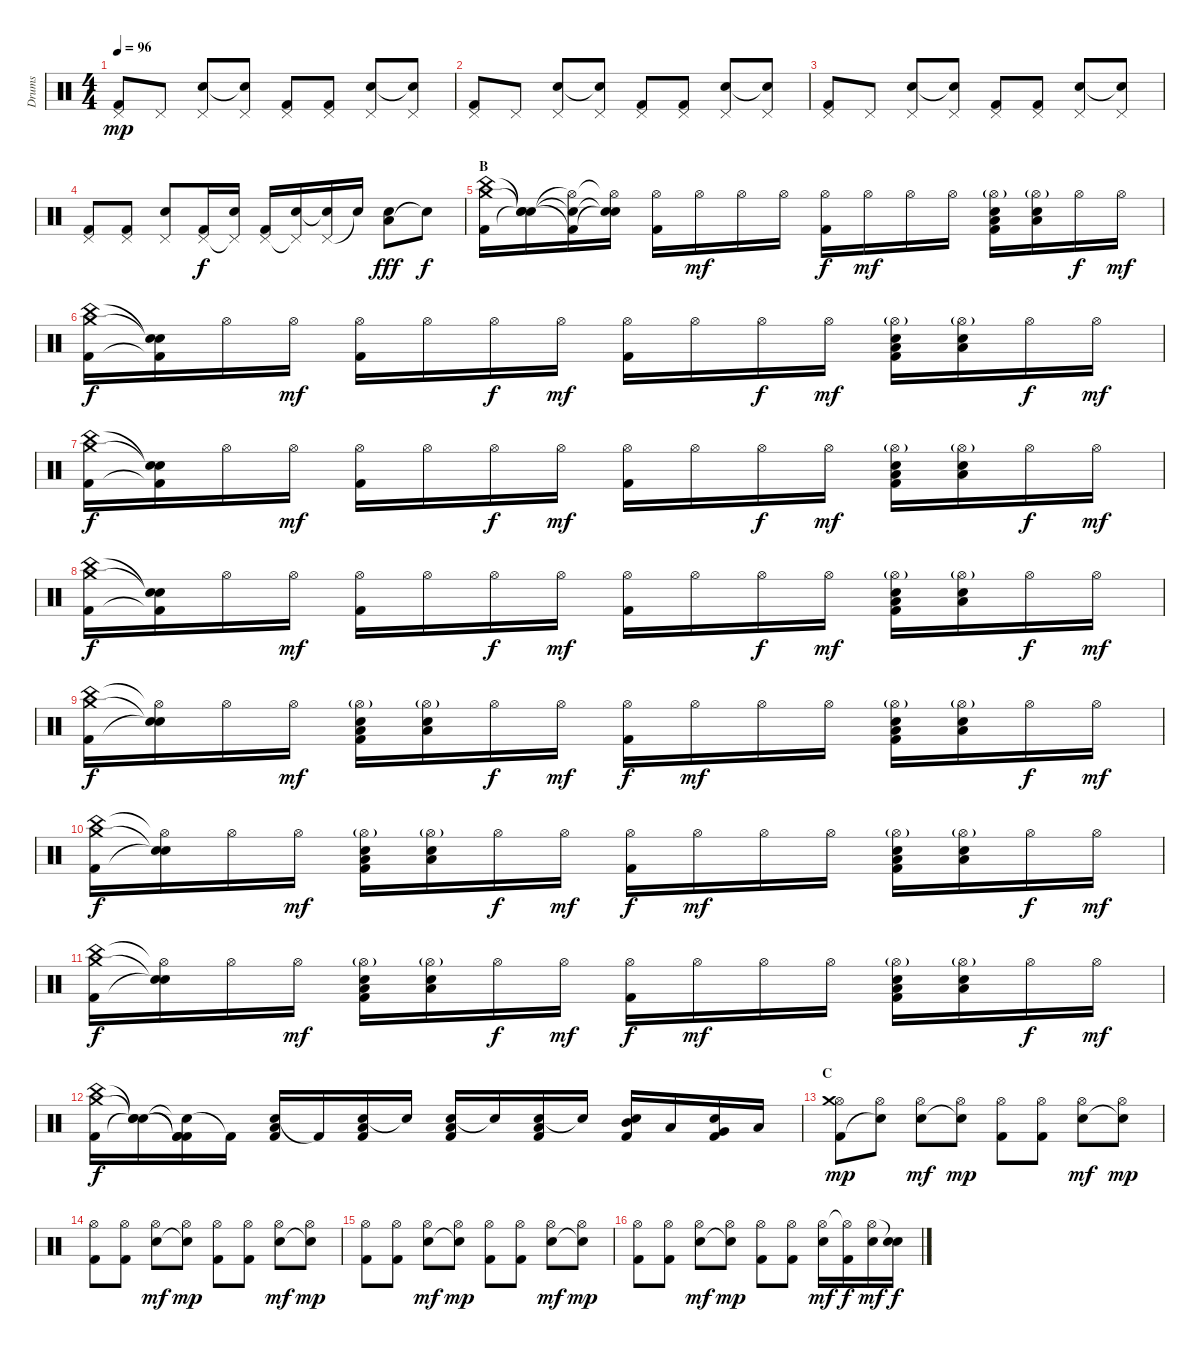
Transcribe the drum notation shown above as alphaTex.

\track ("Drums" "Drums") {instrument percussion}
\staff {score}
\articulation defaults
\ts (4 4)
\tempo 96
\clef neutral
\ks c
("Pedal Hi-Hat (hit)" "Kick (hit) 2").8{dy mp} "Pedal Hi-Hat (hit)".8 ("Pedal Hi-Hat (hit)" "Electric Snare (hit)").8 ("Pedal Hi-Hat (hit)" "Snare (hit)"{t}).8 ("Pedal Hi-Hat (hit)" "Kick (hit) 2").8 ("Pedal Hi-Hat (hit)" "Kick (hit) 2").8 ("Pedal Hi-Hat (hit)" "Electric Snare (hit)").8 ("Pedal Hi-Hat (hit)" "Snare (hit)"{t}).8 |
("Pedal Hi-Hat (hit)" "Kick (hit) 2").8 "Pedal Hi-Hat (hit)".8 ("Pedal Hi-Hat (hit)" "Electric Snare (hit)").8 ("Pedal Hi-Hat (hit)" "Snare (hit)"{t}).8 ("Pedal Hi-Hat (hit)" "Kick (hit) 2").8 ("Pedal Hi-Hat (hit)" "Kick (hit) 2").8 ("Pedal Hi-Hat (hit)" "Electric Snare (hit)").8 ("Pedal Hi-Hat (hit)" "Snare (hit)"{t}).8 |
("Pedal Hi-Hat (hit)" "Kick (hit) 2").8 "Pedal Hi-Hat (hit)".8 ("Pedal Hi-Hat (hit)" "Electric Snare (hit)").8 ("Pedal Hi-Hat (hit)" "Snare (hit)"{t}).8 ("Pedal Hi-Hat (hit)" "Kick (hit) 2").8 ("Pedal Hi-Hat (hit)" "Kick (hit) 2").8 ("Pedal Hi-Hat (hit)" "Electric Snare (hit)").8 ("Pedal Hi-Hat (hit)" "Snare (hit)"{t}).8 |
("Pedal Hi-Hat (hit)" "Kick (hit) 2").8 ("Pedal Hi-Hat (hit)" "Kick (hit) 2").8 ("Pedal Hi-Hat (hit)" "Electric Snare (hit)").8 ("Pedal Hi-Hat (hit)" "Kick (hit) 2").16{dy f} ("Pedal Hi-Hat (hit)"{t} "Electric Snare (hit)").16 ("Pedal Hi-Hat (hit)" "Kick (hit) 2").16 ("Pedal Hi-Hat (hit)"{t} "Electric Snare (hit)").16 ("Pedal Hi-Hat (hit)" "Snare (hit)"{t}).16 "Snare (hit)"{t}.16 ("Low Tom (hit)" "Electric Snare (hit)").8{dy fff} "Snare (hit)"{t}.8{dy f} |
\section ("" "B")
("China (hit)" "Kick (hit) 2" "Crash medium (hit)").16 ("Snare (hit)"{t} "Snare (hit)"{t} "Snare (hit)"{t}).16 ("Hi-Hat (open)"{t} "Kick (hit) 2"{t} "Snare (hit)"{t}).16 ("Hi-Hat (open)"{t} "Snare (hit)"{t} "Snare (hit)"{t}).16 ("Hi-Hat (open)" "Kick (hit) 2").16 "Hi-Hat (open)".16{dy mf} "Hi-Hat (open)".16 "Hi-Hat (open)".16 ("Hi-Hat (open)" "Kick (hit) 2").16{dy f} "Hi-Hat (open)".16{dy mf} "Hi-Hat (open)".16 "Hi-Hat (open)".16 ("Hi-Hat (open)"{g} "Kick (hit) 2" "Electric Snare (hit)" "Low Tom (hit)").16 ("Hi-Hat (open)"{g} "Electric Snare (hit)" "Low Tom (hit)").16 "Hi-Hat (open)".16{dy f} "Hi-Hat (open)".16{dy mf} |
("China (hit)" "Kick (hit) 2" "Crash medium (hit)").16{dy f} ("Snare (hit)"{t} "Kick (hit) 2"{t} "Snare (hit)"{t}).16 "Hi-Hat (open)".16 "Hi-Hat (open)".16{dy mf} ("Hi-Hat (open)" "Kick (hit) 2").16 "Hi-Hat (open)".16 "Hi-Hat (open)".16{dy f} "Hi-Hat (open)".16{dy mf} ("Hi-Hat (open)" "Kick (hit) 2").16 "Hi-Hat (open)".16 "Hi-Hat (open)".16{dy f} "Hi-Hat (open)".16{dy mf} ("Hi-Hat (open)"{g} "Kick (hit) 2" "Electric Snare (hit)" "Low Tom (hit)").16 ("Hi-Hat (open)"{g} "Electric Snare (hit)" "Low Tom (hit)").16 "Hi-Hat (open)".16{dy f} "Hi-Hat (open)".16{dy mf} |
("China (hit)" "Kick (hit) 2" "Crash medium (hit)").16{dy f} ("Snare (hit)"{t} "Kick (hit) 2"{t} "Snare (hit)"{t}).16 "Hi-Hat (open)".16 "Hi-Hat (open)".16{dy mf} ("Hi-Hat (open)" "Kick (hit) 2").16 "Hi-Hat (open)".16 "Hi-Hat (open)".16{dy f} "Hi-Hat (open)".16{dy mf} ("Hi-Hat (open)" "Kick (hit) 2").16 "Hi-Hat (open)".16 "Hi-Hat (open)".16{dy f} "Hi-Hat (open)".16{dy mf} ("Hi-Hat (open)"{g} "Kick (hit) 2" "Electric Snare (hit)" "Low Tom (hit)").16 ("Hi-Hat (open)"{g} "Electric Snare (hit)" "Low Tom (hit)").16 "Hi-Hat (open)".16{dy f} "Hi-Hat (open)".16{dy mf} |
("China (hit)" "Kick (hit) 2" "Crash medium (hit)").16{dy f} ("Snare (hit)"{t} "Kick (hit) 2"{t} "Snare (hit)"{t}).16 "Hi-Hat (open)".16 "Hi-Hat (open)".16{dy mf} ("Hi-Hat (open)" "Kick (hit) 2").16 "Hi-Hat (open)".16 "Hi-Hat (open)".16{dy f} "Hi-Hat (open)".16{dy mf} ("Hi-Hat (open)" "Kick (hit) 2").16 "Hi-Hat (open)".16 "Hi-Hat (open)".16{dy f} "Hi-Hat (open)".16{dy mf} ("Hi-Hat (open)"{g} "Kick (hit) 2" "Electric Snare (hit)" "Low Tom (hit)").16 ("Hi-Hat (open)"{g} "Electric Snare (hit)" "Low Tom (hit)").16 "Hi-Hat (open)".16{dy f} "Hi-Hat (open)".16{dy mf} |
("China (hit)" "Kick (hit) 2" "Crash medium (hit)").16{dy f} ("Hi-Hat (open)"{t} "Snare (hit)"{t} "Snare (hit)"{t}).16 "Hi-Hat (open)".16 "Hi-Hat (open)".16{dy mf} ("Hi-Hat (open)"{g} "Kick (hit) 2" "Electric Snare (hit)" "Low Tom (hit)").16 ("Hi-Hat (open)"{g} "Electric Snare (hit)" "Low Tom (hit)").16 "Hi-Hat (open)".16{dy f} "Hi-Hat (open)".16{dy mf} ("Hi-Hat (open)" "Kick (hit) 2").16{dy f} "Hi-Hat (open)".16{dy mf} "Hi-Hat (open)".16 "Hi-Hat (open)".16 ("Hi-Hat (open)"{g} "Kick (hit) 2" "Electric Snare (hit)" "Low Tom (hit)").16 ("Hi-Hat (open)"{g} "Electric Snare (hit)" "Low Tom (hit)").16 "Hi-Hat (open)".16{dy f} "Hi-Hat (open)".16{dy mf} |
("China (hit)" "Kick (hit) 2" "Crash medium (hit)").16{dy f} ("Hi-Hat (open)"{t} "Snare (hit)"{t} "Snare (hit)"{t}).16 "Hi-Hat (open)".16 "Hi-Hat (open)".16{dy mf} ("Hi-Hat (open)"{g} "Kick (hit) 2" "Electric Snare (hit)" "Low Tom (hit)").16 ("Hi-Hat (open)"{g} "Electric Snare (hit)" "Low Tom (hit)").16 "Hi-Hat (open)".16{dy f} "Hi-Hat (open)".16{dy mf} ("Hi-Hat (open)" "Kick (hit) 2").16{dy f} "Hi-Hat (open)".16{dy mf} "Hi-Hat (open)".16 "Hi-Hat (open)".16 ("Hi-Hat (open)"{g} "Kick (hit) 2" "Electric Snare (hit)" "Low Tom (hit)").16 ("Hi-Hat (open)"{g} "Electric Snare (hit)" "Low Tom (hit)").16 "Hi-Hat (open)".16{dy f} "Hi-Hat (open)".16{dy mf} |
("China (hit)" "Kick (hit) 2" "Crash medium (hit)").16{dy f} ("Hi-Hat (open)"{t} "Snare (hit)"{t} "Snare (hit)"{t}).16 "Hi-Hat (open)".16 "Hi-Hat (open)".16{dy mf} ("Hi-Hat (open)"{g} "Kick (hit) 2" "Electric Snare (hit)" "Low Tom (hit)").16 ("Hi-Hat (open)"{g} "Electric Snare (hit)" "Low Tom (hit)").16 "Hi-Hat (open)".16{dy f} "Hi-Hat (open)".16{dy mf} ("Hi-Hat (open)" "Kick (hit) 2").16{dy f} "Hi-Hat (open)".16{dy mf} "Hi-Hat (open)".16 "Hi-Hat (open)".16 ("Hi-Hat (open)"{g} "Kick (hit) 2" "Electric Snare (hit)" "Low Tom (hit)").16 ("Hi-Hat (open)"{g} "Electric Snare (hit)" "Low Tom (hit)").16 "Hi-Hat (open)".16{dy f} "Hi-Hat (open)".16{dy mf} |
("China (hit)" "Kick (hit) 2" "Crash medium (hit)").16{dy f} ("Snare (hit)"{t} "Snare (hit)"{t} "Snare (hit)"{t}).16 ("Snare (hit)"{t} "Kick (hit) 2"{t} "Kick (hit) 2"{t} "Kick (hit) 2").16 "Kick (hit) 2"{t}.16 ("Electric Snare (hit)" "Low Tom (hit)" "Kick (hit) 2").16 "Kick (hit) 2"{t}.16 ("Electric Snare (hit)" "Low Tom (hit)" "Kick (hit) 2").16 "Snare (hit)"{t}.16 ("Electric Snare (hit)" "Low Tom (hit)" "Kick (hit) 2").16 "Snare (hit)"{t}.16 ("Electric Snare (hit)" "Low Tom (hit)" "Kick (hit) 2").16 "Snare (hit)"{t}.16 ("Electric Snare (hit)" "Mid Tom (hit)" "Kick (hit) 2").16 "Low Tom (hit)".16 ("Electric Snare (hit)" "Very Low Tom (hit)" "Kick (hit) 2").16 "Low Floor Tom (hit)".16 |
\section ("" "C")
("Hi-Hat (open)" "Kick (hit) 2" "Crash medium (hit)").8{dy mp} ("Hi-Hat (open)" "Snare (hit)"{t}).8 ("Hi-Hat (open)" "Electric Snare (hit)").8{dy mf} ("Hi-Hat (open)" "Snare (hit)"{t}).8{dy mp} ("Hi-Hat (open)" "Kick (hit) 2").8 ("Hi-Hat (open)" "Kick (hit) 2").8 ("Hi-Hat (open)" "Electric Snare (hit)").8{dy mf} ("Hi-Hat (open)" "Snare (hit)"{t}).8{dy mp} |
("Hi-Hat (open)" "Kick (hit) 2").8 ("Hi-Hat (open)" "Kick (hit) 2").8 ("Hi-Hat (open)" "Electric Snare (hit)").8{dy mf} ("Hi-Hat (open)" "Snare (hit)"{t}).8{dy mp} ("Hi-Hat (open)" "Kick (hit) 2").8 ("Hi-Hat (open)" "Kick (hit) 2").8 ("Hi-Hat (open)" "Electric Snare (hit)").8{dy mf} ("Hi-Hat (open)" "Snare (hit)"{t}).8{dy mp} |
("Hi-Hat (open)" "Kick (hit) 2").8 ("Hi-Hat (open)" "Kick (hit) 2").8 ("Hi-Hat (open)" "Electric Snare (hit)").8{dy mf} ("Hi-Hat (open)" "Snare (hit)"{t}).8{dy mp} ("Hi-Hat (open)" "Kick (hit) 2").8 ("Hi-Hat (open)" "Kick (hit) 2").8 ("Hi-Hat (open)" "Electric Snare (hit)").8{dy mf} ("Hi-Hat (open)" "Snare (hit)"{t}).8{dy mp} |
("Hi-Hat (open)" "Kick (hit) 2").8 ("Hi-Hat (open)" "Kick (hit) 2").8 ("Hi-Hat (open)" "Electric Snare (hit)").8{dy mf} ("Hi-Hat (open)" "Snare (hit)"{t}).8{dy mp} ("Hi-Hat (open)" "Kick (hit) 2").8 ("Hi-Hat (open)" "Kick (hit) 2").8 ("Hi-Hat (open)" "Electric Snare (hit)").16{dy mf} ("Hi-Hat (open)"{t} "Kick (hit) 2").16{dy f} ("Hi-Hat (open)" "Electric Snare (hit)").16{dy mf} ("Snare (hit)"{t} "Electric Snare (hit)").16{dy f}
